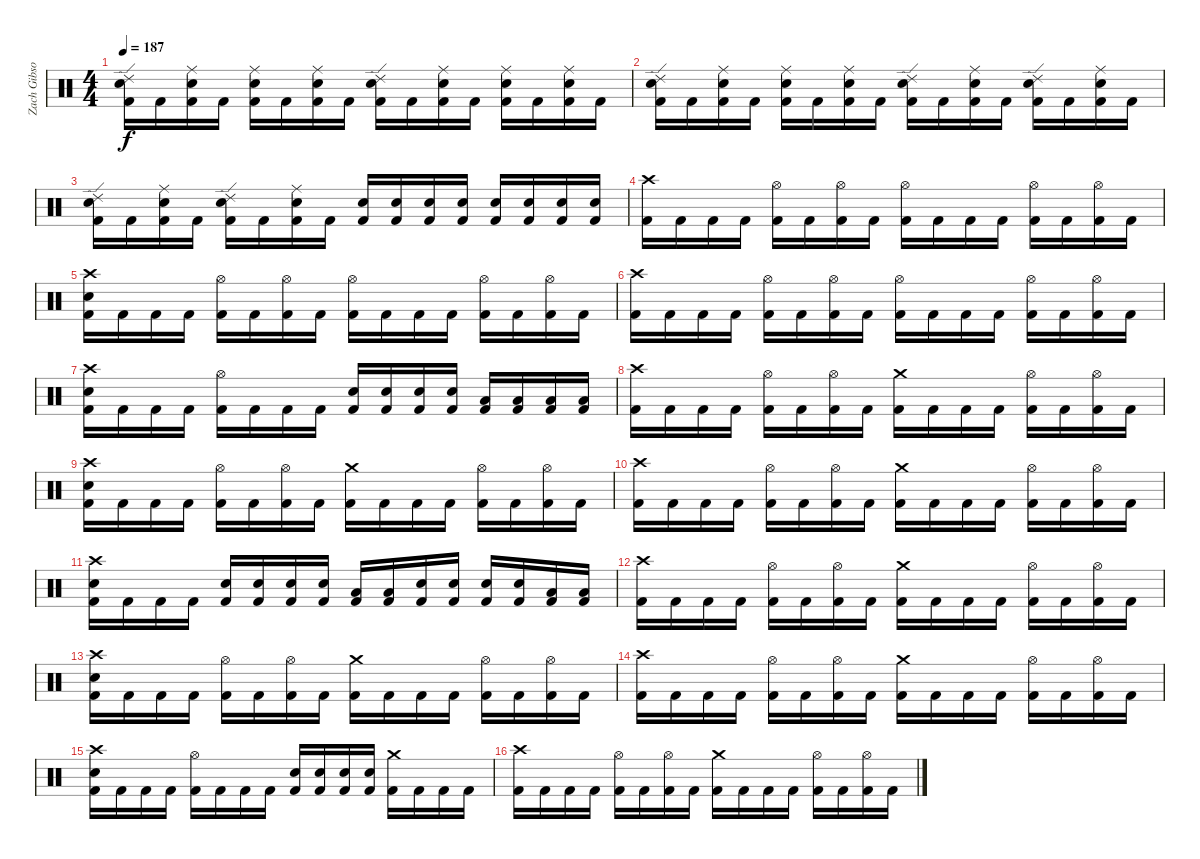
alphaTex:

\track ("Zach Gibson (Ex-Drums)" "Zach Gibso") {instrument percussion}
\staff {score}
\articulation defaults
\ts (4 4)
\tempo 187
\clef neutral
\ks c
("Ride (edge) 2" "Snare (hit) 2" "Kick (hit) 2").16{dy f} "Kick (hit) 2".16 ("Ride (middle)" "Snare (hit) 2" "Kick (hit) 2").16 "Kick (hit) 2".16 ("Ride (middle)" "Snare (hit) 2" "Kick (hit) 2").16 "Kick (hit) 2".16 ("Ride (middle)" "Snare (hit) 2" "Kick (hit) 2").16 "Kick (hit) 2".16 ("Ride (edge) 2" "Snare (hit) 2" "Kick (hit) 2").16 "Kick (hit) 2".16 ("Ride (middle)" "Snare (hit) 2" "Kick (hit) 2").16 "Kick (hit) 2".16 ("Ride (middle)" "Snare (hit) 2" "Kick (hit) 2").16 "Kick (hit) 2".16 ("Ride (middle)" "Snare (hit) 2" "Kick (hit) 2").16 "Kick (hit) 2".16 |
("Ride (edge) 2" "Snare (hit) 2" "Kick (hit) 2").16 "Kick (hit) 2".16 ("Ride (middle)" "Snare (hit) 2" "Kick (hit) 2").16 "Kick (hit) 2".16 ("Ride (middle)" "Snare (hit) 2" "Kick (hit) 2").16 "Kick (hit) 2".16 ("Ride (middle)" "Snare (hit) 2" "Kick (hit) 2").16 "Kick (hit) 2".16 ("Ride (edge) 2" "Snare (hit) 2" "Kick (hit) 2").16 "Kick (hit) 2".16 ("Ride (middle)" "Snare (hit) 2" "Kick (hit) 2").16 "Kick (hit) 2".16 ("Ride (edge) 2" "Snare (hit) 2" "Kick (hit) 2").16 "Kick (hit) 2".16 ("Ride (middle)" "Snare (hit) 2" "Kick (hit) 2").16 "Kick (hit) 2".16 |
("Ride (edge) 2" "Snare (hit) 2" "Kick (hit) 2").16 "Kick (hit) 2".16 ("Ride (middle)" "Snare (hit) 2" "Kick (hit) 2").16 "Kick (hit) 2".16 ("Ride (edge) 2" "Snare (hit) 2" "Kick (hit) 2").16 "Kick (hit) 2".16 ("Ride (middle)" "Snare (hit) 2" "Kick (hit) 2").16 "Kick (hit) 2".16 ("Snare (hit) 2" "Kick (hit) 2").16 ("Snare (hit) 2" "Kick (hit) 2").16 ("Snare (hit) 2" "Kick (hit) 2").16 ("Snare (hit) 2" "Kick (hit) 2").16 ("Snare (hit) 2" "Kick (hit) 2").16 ("Snare (hit) 2" "Kick (hit) 2").16 ("Snare (hit) 2" "Kick (hit) 2").16 ("Snare (hit) 2" "Kick (hit) 2").16 |
("Crash high (hit)" "Kick (hit) 2").16 "Kick (hit) 2".16 "Kick (hit) 2".16 "Kick (hit) 2".16 ("Hi-Hat (open)" "Kick (hit) 2").16 "Kick (hit) 2".16 ("Hi-Hat (open)" "Kick (hit) 2").16 "Kick (hit) 2".16 ("Hi-Hat (open)" "Kick (hit) 2").16 "Kick (hit) 2".16 "Kick (hit) 2".16 "Kick (hit) 2".16 ("Hi-Hat (open)" "Kick (hit) 2").16 "Kick (hit) 2".16 ("Hi-Hat (open)" "Kick (hit) 2").16 "Kick (hit) 2".16 |
("Snare (hit) 2" "Crash high (hit)" "Kick (hit) 2").16 "Kick (hit) 2".16 "Kick (hit) 2".16 "Kick (hit) 2".16 ("Hi-Hat (open)" "Kick (hit) 2").16 "Kick (hit) 2".16 ("Hi-Hat (open)" "Kick (hit) 2").16 "Kick (hit) 2".16 ("Hi-Hat (open)" "Kick (hit) 2").16 "Kick (hit) 2".16 "Kick (hit) 2".16 "Kick (hit) 2".16 ("Hi-Hat (open)" "Kick (hit) 2").16 "Kick (hit) 2".16 ("Hi-Hat (open)" "Kick (hit) 2").16 "Kick (hit) 2".16 |
("Crash high (hit)" "Kick (hit) 2").16 "Kick (hit) 2".16 "Kick (hit) 2".16 "Kick (hit) 2".16 ("Hi-Hat (open)" "Kick (hit) 2").16 "Kick (hit) 2".16 ("Hi-Hat (open)" "Kick (hit) 2").16 "Kick (hit) 2".16 ("Hi-Hat (open)" "Kick (hit) 2").16 "Kick (hit) 2".16 "Kick (hit) 2".16 "Kick (hit) 2".16 ("Hi-Hat (open)" "Kick (hit) 2").16 "Kick (hit) 2".16 ("Hi-Hat (open)" "Kick (hit) 2").16 "Kick (hit) 2".16 |
("Snare (hit) 2" "Crash high (hit)" "Kick (hit) 2").16 "Kick (hit) 2".16 "Kick (hit) 2".16 "Kick (hit) 2".16 ("Hi-Hat (open)" "Kick (hit) 2").16 "Kick (hit) 2".16 "Kick (hit) 2".16 "Kick (hit) 2".16 ("Snare (hit) 2" "Kick (hit) 2").16 ("Snare (hit) 2" "Kick (hit) 2").16 ("Snare (hit) 2" "Kick (hit) 2").16 ("Snare (hit) 2" "Kick (hit) 2").16 ("Low Tom (hit)" "Kick (hit) 2").16 ("Low Tom (hit)" "Kick (hit) 2").16 ("Low Tom (hit)" "Kick (hit) 2").16 ("Low Tom (hit)" "Kick (hit) 2").16 |
("Crash high (hit)" "Kick (hit) 2").16 "Kick (hit) 2".16 "Kick (hit) 2".16 "Kick (hit) 2".16 ("Hi-Hat (open)" "Kick (hit) 2").16 "Kick (hit) 2".16 ("Hi-Hat (open)" "Kick (hit) 2").16 "Kick (hit) 2".16 ("Crash medium (hit)" "Kick (hit) 2").16 "Kick (hit) 2".16 "Kick (hit) 2".16 "Kick (hit) 2".16 ("Hi-Hat (open)" "Kick (hit) 2").16 "Kick (hit) 2".16 ("Hi-Hat (open)" "Kick (hit) 2").16 "Kick (hit) 2".16 |
("Snare (hit) 2" "Crash high (hit)" "Kick (hit) 2").16 "Kick (hit) 2".16 "Kick (hit) 2".16 "Kick (hit) 2".16 ("Hi-Hat (open)" "Kick (hit) 2").16 "Kick (hit) 2".16 ("Hi-Hat (open)" "Kick (hit) 2").16 "Kick (hit) 2".16 ("Crash medium (hit)" "Kick (hit) 2").16 "Kick (hit) 2".16 "Kick (hit) 2".16 "Kick (hit) 2".16 ("Hi-Hat (open)" "Kick (hit) 2").16 "Kick (hit) 2".16 ("Hi-Hat (open)" "Kick (hit) 2").16 "Kick (hit) 2".16 |
("Crash high (hit)" "Kick (hit) 2").16 "Kick (hit) 2".16 "Kick (hit) 2".16 "Kick (hit) 2".16 ("Hi-Hat (open)" "Kick (hit) 2").16 "Kick (hit) 2".16 ("Hi-Hat (open)" "Kick (hit) 2").16 "Kick (hit) 2".16 ("Crash medium (hit)" "Kick (hit) 2").16 "Kick (hit) 2".16 "Kick (hit) 2".16 "Kick (hit) 2".16 ("Hi-Hat (open)" "Kick (hit) 2").16 "Kick (hit) 2".16 ("Hi-Hat (open)" "Kick (hit) 2").16 "Kick (hit) 2".16 |
("Snare (hit) 2" "Crash high (hit)" "Kick (hit) 2").16 "Kick (hit) 2".16 "Kick (hit) 2".16 "Kick (hit) 2".16 ("Snare (hit) 2" "Kick (hit) 2").16 ("Snare (hit) 2" "Kick (hit) 2").16 ("Snare (hit) 2" "Kick (hit) 2").16 ("Snare (hit) 2" "Kick (hit) 2").16 ("Low Tom (hit)" "Kick (hit) 2").16 ("Low Tom (hit)" "Kick (hit) 2").16 ("Snare (hit) 2" "Kick (hit) 2").16 ("Snare (hit) 2" "Kick (hit) 2").16 ("Snare (hit) 2" "Kick (hit) 2").16 ("Snare (hit) 2" "Kick (hit) 2").16 ("Low Tom (hit)" "Kick (hit) 2").16 ("Low Tom (hit)" "Kick (hit) 2").16 |
("Crash high (hit)" "Kick (hit) 2").16 "Kick (hit) 2".16 "Kick (hit) 2".16 "Kick (hit) 2".16 ("Hi-Hat (open)" "Kick (hit) 2").16 "Kick (hit) 2".16 ("Hi-Hat (open)" "Kick (hit) 2").16 "Kick (hit) 2".16 ("Crash medium (hit)" "Kick (hit) 2").16 "Kick (hit) 2".16 "Kick (hit) 2".16 "Kick (hit) 2".16 ("Hi-Hat (open)" "Kick (hit) 2").16 "Kick (hit) 2".16 ("Hi-Hat (open)" "Kick (hit) 2").16 "Kick (hit) 2".16 |
("Snare (hit) 2" "Crash high (hit)" "Kick (hit) 2").16 "Kick (hit) 2".16 "Kick (hit) 2".16 "Kick (hit) 2".16 ("Hi-Hat (open)" "Kick (hit) 2").16 "Kick (hit) 2".16 ("Hi-Hat (open)" "Kick (hit) 2").16 "Kick (hit) 2".16 ("Crash medium (hit)" "Kick (hit) 2").16 "Kick (hit) 2".16 "Kick (hit) 2".16 "Kick (hit) 2".16 ("Hi-Hat (open)" "Kick (hit) 2").16 "Kick (hit) 2".16 ("Hi-Hat (open)" "Kick (hit) 2").16 "Kick (hit) 2".16 |
("Crash high (hit)" "Kick (hit) 2").16 "Kick (hit) 2".16 "Kick (hit) 2".16 "Kick (hit) 2".16 ("Hi-Hat (open)" "Kick (hit) 2").16 "Kick (hit) 2".16 ("Hi-Hat (open)" "Kick (hit) 2").16 "Kick (hit) 2".16 ("Crash medium (hit)" "Kick (hit) 2").16 "Kick (hit) 2".16 "Kick (hit) 2".16 "Kick (hit) 2".16 ("Hi-Hat (open)" "Kick (hit) 2").16 "Kick (hit) 2".16 ("Hi-Hat (open)" "Kick (hit) 2").16 "Kick (hit) 2".16 |
("Snare (hit) 2" "Crash high (hit)" "Kick (hit) 2").16 "Kick (hit) 2".16 "Kick (hit) 2".16 "Kick (hit) 2".16 ("Hi-Hat (open)" "Kick (hit) 2").16 "Kick (hit) 2".16 "Kick (hit) 2".16 "Kick (hit) 2".16 ("Snare (hit) 2" "Kick (hit) 2").16 ("Snare (hit) 2" "Kick (hit) 2").16 ("Snare (hit) 2" "Kick (hit) 2").16 ("Snare (hit) 2" "Kick (hit) 2").16 ("Crash medium (hit)" "Kick (hit) 2").16 "Kick (hit) 2".16 "Kick (hit) 2".16 "Kick (hit) 2".16 |
("Crash high (hit)" "Kick (hit) 2").16 "Kick (hit) 2".16 "Kick (hit) 2".16 "Kick (hit) 2".16 ("Hi-Hat (open)" "Kick (hit) 2").16 "Kick (hit) 2".16 ("Hi-Hat (open)" "Kick (hit) 2").16 "Kick (hit) 2".16 ("Crash medium (hit)" "Kick (hit) 2").16 "Kick (hit) 2".16 "Kick (hit) 2".16 "Kick (hit) 2".16 ("Hi-Hat (open)" "Kick (hit) 2").16 "Kick (hit) 2".16 ("Hi-Hat (open)" "Kick (hit) 2").16 "Kick (hit) 2".16
